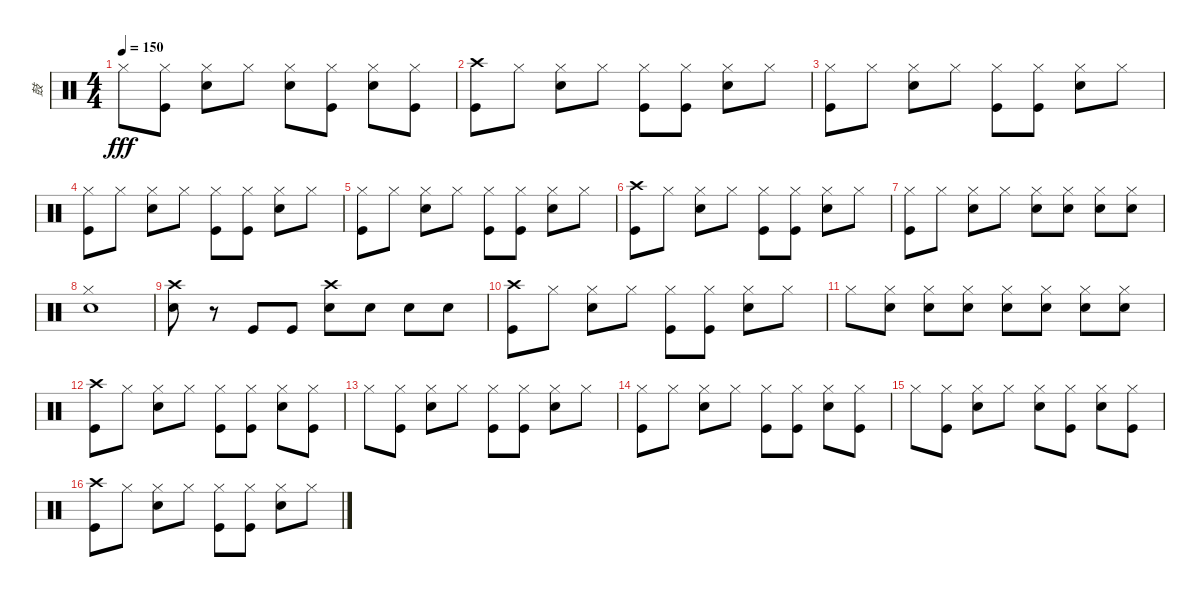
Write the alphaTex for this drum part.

\track ("鼓" "鼓") {instrument percussion}
\staff {score}
\articulation defaults
\ts (4 4)
\tempo 150
\clef neutral
\ks c "Hi-Hat (closed)".8{dy fff}
("Hi-Hat (closed)" "Kick (hit)").8 ("Hi-Hat (closed)" "Electric Snare (hit)").8 "Hi-Hat (closed)".8 ("Hi-Hat (closed)" "Electric Snare (hit)").8 ("Hi-Hat (closed)" "Kick (hit)").8 ("Hi-Hat (closed)" "Electric Snare (hit)").8 ("Hi-Hat (closed)" "Kick (hit)").8 |
("Crash high (hit)" "Kick (hit)").8 "Hi-Hat (closed)".8 ("Hi-Hat (closed)" "Electric Snare (hit)").8 "Hi-Hat (closed)".8 ("Hi-Hat (closed)" "Kick (hit)").8 ("Hi-Hat (closed)" "Kick (hit)").8 ("Hi-Hat (closed)" "Electric Snare (hit)").8 "Hi-Hat (closed)".8 |
("Hi-Hat (closed)" "Kick (hit)").8 "Hi-Hat (closed)".8 ("Hi-Hat (closed)" "Electric Snare (hit)").8 "Hi-Hat (closed)".8 ("Hi-Hat (closed)" "Kick (hit)").8 ("Hi-Hat (closed)" "Kick (hit)").8 ("Hi-Hat (closed)" "Electric Snare (hit)").8 "Hi-Hat (closed)".8 |
("Hi-Hat (closed)" "Kick (hit)").8 "Hi-Hat (closed)".8 ("Hi-Hat (closed)" "Electric Snare (hit)").8 "Hi-Hat (closed)".8 ("Hi-Hat (closed)" "Kick (hit)").8 ("Hi-Hat (closed)" "Kick (hit)").8 ("Hi-Hat (closed)" "Electric Snare (hit)").8 "Hi-Hat (closed)".8 |
("Hi-Hat (closed)" "Kick (hit)").8 "Hi-Hat (closed)".8 ("Hi-Hat (closed)" "Electric Snare (hit)").8 "Hi-Hat (closed)".8 ("Hi-Hat (closed)" "Kick (hit)").8 ("Hi-Hat (closed)" "Kick (hit)").8 ("Hi-Hat (closed)" "Electric Snare (hit)").8 "Hi-Hat (closed)".8 |
("Crash high (hit)" "Kick (hit)").8 "Hi-Hat (closed)".8 ("Hi-Hat (closed)" "Electric Snare (hit)").8 "Hi-Hat (closed)".8 ("Hi-Hat (closed)" "Kick (hit)").8 ("Hi-Hat (closed)" "Kick (hit)").8 ("Hi-Hat (closed)" "Electric Snare (hit)").8 "Hi-Hat (closed)".8 |
("Hi-Hat (closed)" "Kick (hit)").8 "Hi-Hat (closed)".8 ("Hi-Hat (closed)" "Electric Snare (hit)").8 "Hi-Hat (closed)".8 ("Hi-Hat (closed)" "Electric Snare (hit)").8 ("Hi-Hat (closed)" "Electric Snare (hit)").8 ("Hi-Hat (closed)" "Electric Snare (hit)").8 ("Hi-Hat (closed)" "Electric Snare (hit)").8 |
("Hi-Hat (closed)" "Electric Snare (hit)").1 |
("Crash high (hit)" "Electric Snare (hit)").8 r.8 "Kick (hit)".8 "Kick (hit)".8 ("Crash high (hit)" "Electric Snare (hit)").8 "Electric Snare (hit)".8 "Electric Snare (hit)".8 "Electric Snare (hit)".8 |
("Crash high (hit)" "Kick (hit)").8 "Hi-Hat (closed)".8 ("Hi-Hat (closed)" "Electric Snare (hit)").8 "Hi-Hat (closed)".8 ("Hi-Hat (closed)" "Kick (hit)").8 ("Hi-Hat (closed)" "Kick (hit)").8 ("Hi-Hat (closed)" "Electric Snare (hit)").8 "Hi-Hat (closed)".8 |
"Hi-Hat (closed)".8 ("Hi-Hat (closed)" "Electric Snare (hit)").8 ("Hi-Hat (closed)" "Electric Snare (hit)").8 ("Hi-Hat (closed)" "Electric Snare (hit)").8 ("Hi-Hat (closed)" "Electric Snare (hit)").8 ("Hi-Hat (closed)" "Electric Snare (hit)").8 ("Hi-Hat (closed)" "Electric Snare (hit)").8 ("Hi-Hat (closed)" "Electric Snare (hit)").8 |
("Crash high (hit)" "Kick (hit)").8 "Hi-Hat (closed)".8 ("Hi-Hat (closed)" "Electric Snare (hit)").8 "Hi-Hat (closed)".8 ("Hi-Hat (closed)" "Kick (hit)").8 ("Hi-Hat (closed)" "Kick (hit)").8 ("Hi-Hat (closed)" "Electric Snare (hit)").8 ("Hi-Hat (closed)" "Kick (hit)").8 |
"Hi-Hat (closed)".8 ("Hi-Hat (closed)" "Kick (hit)").8 ("Hi-Hat (closed)" "Electric Snare (hit)").8 "Hi-Hat (closed)".8 ("Hi-Hat (closed)" "Kick (hit)").8 ("Hi-Hat (closed)" "Kick (hit)").8 ("Hi-Hat (closed)" "Electric Snare (hit)").8 "Hi-Hat (closed)".8 |
("Hi-Hat (closed)" "Kick (hit)").8 "Hi-Hat (closed)".8 ("Hi-Hat (closed)" "Electric Snare (hit)").8 "Hi-Hat (closed)".8 ("Hi-Hat (closed)" "Kick (hit)").8 ("Hi-Hat (closed)" "Kick (hit)").8 ("Hi-Hat (closed)" "Electric Snare (hit)").8 ("Hi-Hat (closed)" "Kick (hit)").8 |
"Hi-Hat (closed)".8 ("Hi-Hat (closed)" "Kick (hit)").8 ("Hi-Hat (closed)" "Electric Snare (hit)").8 "Hi-Hat (closed)".8 ("Hi-Hat (closed)" "Electric Snare (hit)").8 ("Hi-Hat (closed)" "Kick (hit)").8 ("Hi-Hat (closed)" "Electric Snare (hit)").8 ("Hi-Hat (closed)" "Kick (hit)").8 |
("Crash high (hit)" "Kick (hit)").8 "Hi-Hat (closed)".8 ("Hi-Hat (closed)" "Electric Snare (hit)").8 "Hi-Hat (closed)".8 ("Hi-Hat (closed)" "Kick (hit)").8 ("Hi-Hat (closed)" "Kick (hit)").8 ("Hi-Hat (closed)" "Electric Snare (hit)").8 "Hi-Hat (closed)".8
